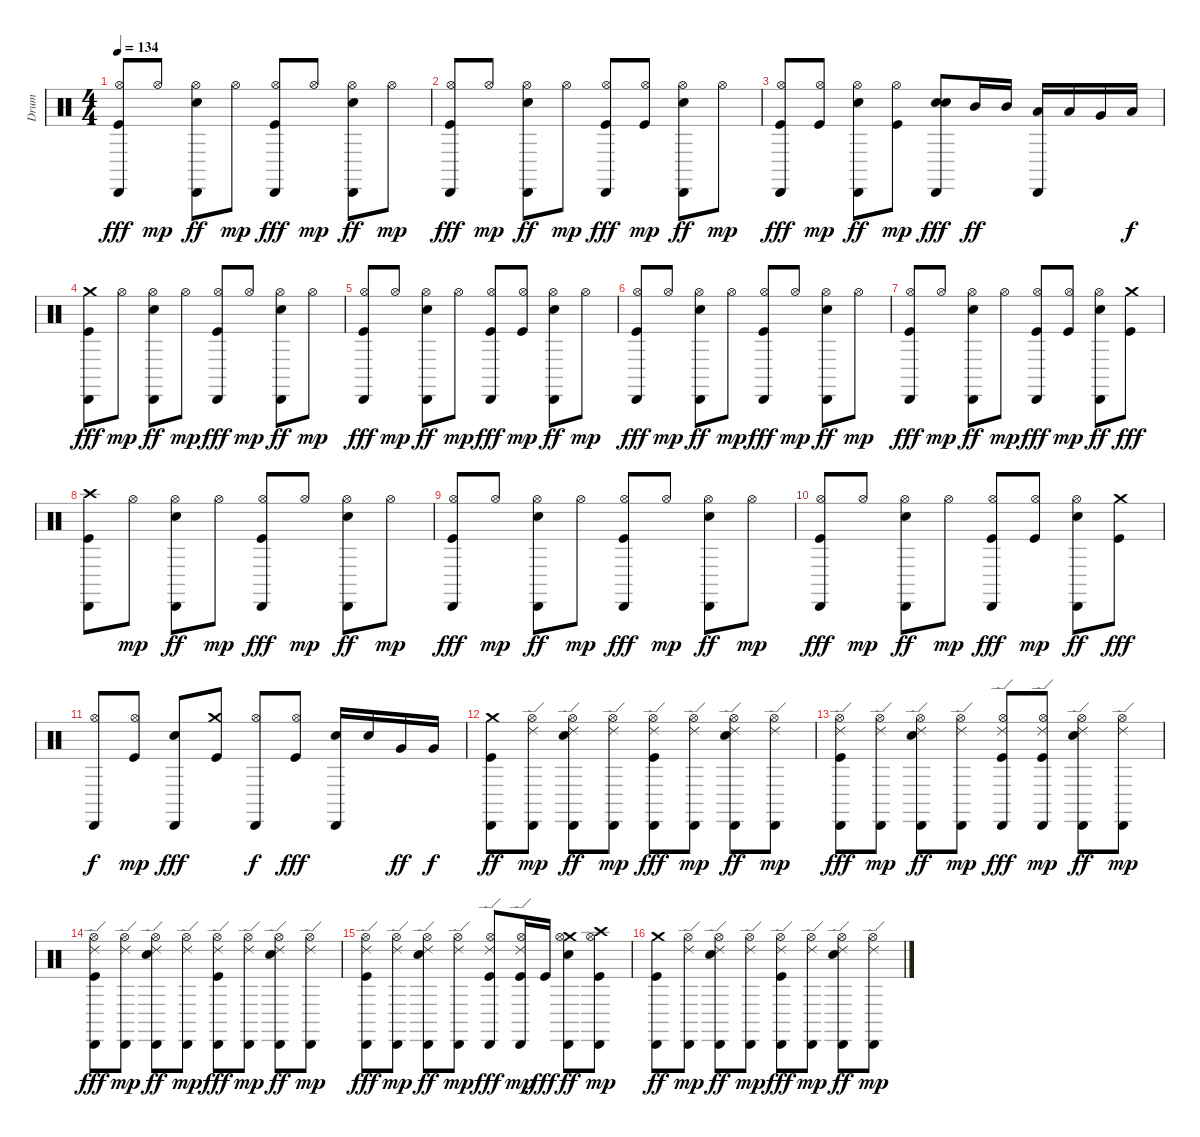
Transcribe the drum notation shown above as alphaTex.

\track ("Drum" "Drum") {instrument percussion}
\staff {score}
\articulation defaults
\ts (4 4)
\tempo 134
\clef neutral
\ks c
("Kick (hit)" "Hi-Hat (open)" "Cabasa (hit)").8{dy fff} "Hi-Hat (open)".8{dy mp} ("Electric Snare (hit)" "Cabasa (hit)" "Hi-Hat (open)").8{dy ff} "Hi-Hat (open)".8{dy mp} ("Cabasa (hit)" "Kick (hit)" "Hi-Hat (open)").8{dy fff} "Hi-Hat (open)".8{dy mp} ("Cabasa (hit)" "Electric Snare (hit)" "Hi-Hat (open)").8{dy ff} "Hi-Hat (open)".8{dy mp} |
("Cabasa (hit)" "Kick (hit)" "Hi-Hat (open)").8{dy fff} "Hi-Hat (open)".8{dy mp} ("Cabasa (hit)" "Electric Snare (hit)" "Hi-Hat (open)").8{dy ff} "Hi-Hat (open)".8{dy mp} ("Cabasa (hit)" "Kick (hit)" "Hi-Hat (open)").8{dy fff} ("Kick (hit)" "Hi-Hat (open)").8{dy mp} ("Cabasa (hit)" "Electric Snare (hit)" "Hi-Hat (open)").8{dy ff} "Hi-Hat (open)".8{dy mp} |
("Cabasa (hit)" "Kick (hit)" "Hi-Hat (open)").8{dy fff} ("Kick (hit)" "Hi-Hat (open)").8{dy mp} ("Cabasa (hit)" "Electric Snare (hit)" "Hi-Hat (open)").8{dy ff} ("Kick (hit)" "Hi-Hat (open)").8{dy mp} ("Cabasa (hit)" "Electric Snare (hit)" "Electric Snare (hit)").8{dy fff} "Mid Tom (hit)".16{dy ff} "Mid Tom (hit)".16 ("Cabasa (hit)" "Low Tom (hit)").16 "Low Tom (hit)".16 "Very Low Tom (hit)".16 "Low Floor Tom (hit)".16{dy f} |
("Cabasa (hit)" "Crash medium (hit)" "Kick (hit)").8{dy fff} "Hi-Hat (open)".8{dy mp} ("Electric Snare (hit)" "Cabasa (hit)" "Hi-Hat (open)").8{dy ff} "Hi-Hat (open)".8{dy mp} ("Kick (hit)" "Cabasa (hit)" "Hi-Hat (open)").8{dy fff} "Hi-Hat (open)".8{dy mp} ("Electric Snare (hit)" "Cabasa (hit)" "Hi-Hat (open)").8{dy ff} "Hi-Hat (open)".8{dy mp} |
("Kick (hit)" "Hi-Hat (open)" "Cabasa (hit)").8{dy fff} "Hi-Hat (open)".8{dy mp} ("Electric Snare (hit)" "Cabasa (hit)" "Hi-Hat (open)").8{dy ff} "Hi-Hat (open)".8{dy mp} ("Cabasa (hit)" "Kick (hit)" "Hi-Hat (open)").8{dy fff} ("Kick (hit)" "Hi-Hat (open)").8{dy mp} ("Cabasa (hit)" "Electric Snare (hit)" "Hi-Hat (open)").8{dy ff} "Hi-Hat (open)".8{dy mp} |
("Kick (hit)" "Hi-Hat (open)" "Cabasa (hit)").8{dy fff} "Hi-Hat (open)".8{dy mp} ("Electric Snare (hit)" "Cabasa (hit)" "Hi-Hat (open)").8{dy ff} "Hi-Hat (open)".8{dy mp} ("Cabasa (hit)" "Kick (hit)" "Hi-Hat (open)").8{dy fff} "Hi-Hat (open)".8{dy mp} ("Cabasa (hit)" "Electric Snare (hit)" "Hi-Hat (open)").8{dy ff} "Hi-Hat (open)".8{dy mp} |
("Kick (hit)" "Hi-Hat (open)" "Cabasa (hit)").8{dy fff} "Hi-Hat (open)".8{dy mp} ("Electric Snare (hit)" "Cabasa (hit)" "Hi-Hat (open)").8{dy ff} "Hi-Hat (open)".8{dy mp} ("Cabasa (hit)" "Kick (hit)" "Hi-Hat (open)").8{dy fff} ("Kick (hit)" "Hi-Hat (open)").8{dy mp} ("Cabasa (hit)" "Electric Snare (hit)" "Hi-Hat (open)").8{dy ff} ("Kick (hit)" "Crash medium (hit)").8{dy fff} |
("Cabasa (hit)" "Crash high (hit)" "Kick (hit)").8 "Hi-Hat (open)".8{dy mp} ("Electric Snare (hit)" "Cabasa (hit)" "Hi-Hat (open)").8{dy ff} "Hi-Hat (open)".8{dy mp} ("Kick (hit)" "Cabasa (hit)" "Hi-Hat (open)").8{dy fff} "Hi-Hat (open)".8{dy mp} ("Electric Snare (hit)" "Cabasa (hit)" "Hi-Hat (open)").8{dy ff} "Hi-Hat (open)".8{dy mp} |
("Kick (hit)" "Hi-Hat (open)" "Cabasa (hit)").8{dy fff} "Hi-Hat (open)".8{dy mp} ("Electric Snare (hit)" "Cabasa (hit)" "Hi-Hat (open)").8{dy ff} "Hi-Hat (open)".8{dy mp} ("Cabasa (hit)" "Kick (hit)" "Hi-Hat (open)").8{dy fff} "Hi-Hat (open)".8{dy mp} ("Cabasa (hit)" "Electric Snare (hit)" "Hi-Hat (open)").8{dy ff} "Hi-Hat (open)".8{dy mp} |
("Kick (hit)" "Hi-Hat (open)" "Cabasa (hit)").8{dy fff} "Hi-Hat (open)".8{dy mp} ("Electric Snare (hit)" "Cabasa (hit)" "Hi-Hat (open)").8{dy ff} "Hi-Hat (open)".8{dy mp} ("Cabasa (hit)" "Kick (hit)" "Hi-Hat (open)").8{dy fff} ("Kick (hit)" "Hi-Hat (open)").8{dy mp} ("Cabasa (hit)" "Electric Snare (hit)" "Hi-Hat (open)").8{dy ff} ("Kick (hit)" "Crash medium (hit)").8{dy fff} |
("Cabasa (hit)" "Hi-Hat (open)").8{dy f} ("Kick (hit)" "Hi-Hat (open)").8{dy mp} ("Cabasa (hit)" "Electric Snare (hit)").8{dy fff} ("Crash medium (hit)" "Kick (hit)").8 ("Cabasa (hit)" "Hi-Hat (open)").8{dy f} ("Hi-Hat (open)" "Kick (hit)").8{dy fff} ("Cabasa (hit)" "Electric Snare (hit)").16 "Electric Snare (hit)".16 "Very Low Tom (hit)".16{dy ff} "Very Low Tom (hit)".16{dy f} |
("Cabasa (hit)" "Kick (hit)" "Crash medium (hit)").8{dy ff} ("Cabasa (hit)" "Ride (edge) 2" "Hi-Hat (open)").8{dy mp} ("Electric Snare (hit)" "Cabasa (hit)" "Ride (edge) 2" "Hi-Hat (open)").8{dy ff} ("Cabasa (hit)" "Ride (edge) 2" "Hi-Hat (open)").8{dy mp} ("Cabasa (hit)" "Ride (edge) 2" "Kick (hit)" "Hi-Hat (open)").8{dy fff} ("Cabasa (hit)" "Ride (edge) 2" "Hi-Hat (open)").8{dy mp} ("Electric Snare (hit)" "Cabasa (hit)" "Ride (edge) 2" "Hi-Hat (open)").8{dy ff} ("Cabasa (hit)" "Ride (edge) 2" "Hi-Hat (open)").8{dy mp} |
("Ride (edge) 2" "Kick (hit)" "Hi-Hat (open)" "Cabasa (hit)").8{dy fff} ("Cabasa (hit)" "Ride (edge) 2" "Hi-Hat (open)").8{dy mp} ("Electric Snare (hit)" "Cabasa (hit)" "Ride (edge) 2" "Hi-Hat (open)").8{dy ff} ("Cabasa (hit)" "Ride (edge) 2" "Hi-Hat (open)").8{dy mp} ("Cabasa (hit)" "Ride (edge) 2" "Kick (hit)" "Hi-Hat (open)").8{dy fff} ("Cabasa (hit)" "Kick (hit)" "Ride (edge) 2" "Hi-Hat (open)").8{dy mp} ("Cabasa (hit)" "Electric Snare (hit)" "Ride (edge) 2" "Hi-Hat (open)").8{dy ff} ("Cabasa (hit)" "Ride (edge) 2" "Hi-Hat (open)").8{dy mp} |
("Ride (edge) 2" "Kick (hit)" "Hi-Hat (open)" "Cabasa (hit)").8{dy fff} ("Cabasa (hit)" "Ride (edge) 2" "Hi-Hat (open)").8{dy mp} ("Electric Snare (hit)" "Cabasa (hit)" "Ride (edge) 2" "Hi-Hat (open)").8{dy ff} ("Cabasa (hit)" "Ride (edge) 2" "Hi-Hat (open)").8{dy mp} ("Cabasa (hit)" "Ride (edge) 2" "Kick (hit)" "Hi-Hat (open)").8{dy fff} ("Cabasa (hit)" "Ride (edge) 2" "Hi-Hat (open)").8{dy mp} ("Cabasa (hit)" "Electric Snare (hit)" "Ride (edge) 2" "Hi-Hat (open)").8{dy ff} ("Cabasa (hit)" "Ride (edge) 2" "Hi-Hat (open)").8{dy mp} |
("Ride (edge) 2" "Kick (hit)" "Hi-Hat (open)" "Cabasa (hit)").8{dy fff} ("Cabasa (hit)" "Ride (edge) 2" "Hi-Hat (open)").8{dy mp} ("Electric Snare (hit)" "Cabasa (hit)" "Ride (edge) 2" "Hi-Hat (open)").8{dy ff} ("Cabasa (hit)" "Ride (edge) 2" "Hi-Hat (open)").8{dy mp} ("Cabasa (hit)" "Ride (edge) 2" "Kick (hit)" "Hi-Hat (open)").8{dy fff} ("Cabasa (hit)" "Kick (hit)" "Ride (edge) 2" "Hi-Hat (open)").16{dy mp} "Kick (hit)".16{dy fff} ("Cabasa (hit)" "Electric Snare (hit)" "Crash medium (hit)" "Hi-Hat (open)").8{dy ff} ("Cabasa (hit)" "Kick (hit)" "Crash high (hit)" "Hi-Hat (open)").8{dy mp} |
("Kick (hit)" "Crash medium (hit)" "Cabasa (hit)").8{dy ff} ("Cabasa (hit)" "Ride (edge) 2" "Hi-Hat (open)").8{dy mp} ("Electric Snare (hit)" "Cabasa (hit)" "Ride (edge) 2" "Hi-Hat (open)").8{dy ff} ("Cabasa (hit)" "Ride (edge) 2" "Hi-Hat (open)").8{dy mp} ("Cabasa (hit)" "Ride (edge) 2" "Kick (hit)" "Hi-Hat (open)").8{dy fff} ("Cabasa (hit)" "Ride (edge) 2" "Hi-Hat (open)").8{dy mp} ("Cabasa (hit)" "Electric Snare (hit)" "Ride (edge) 2" "Hi-Hat (open)").8{dy ff} ("Cabasa (hit)" "Ride (edge) 2" "Hi-Hat (open)").8{dy mp}
